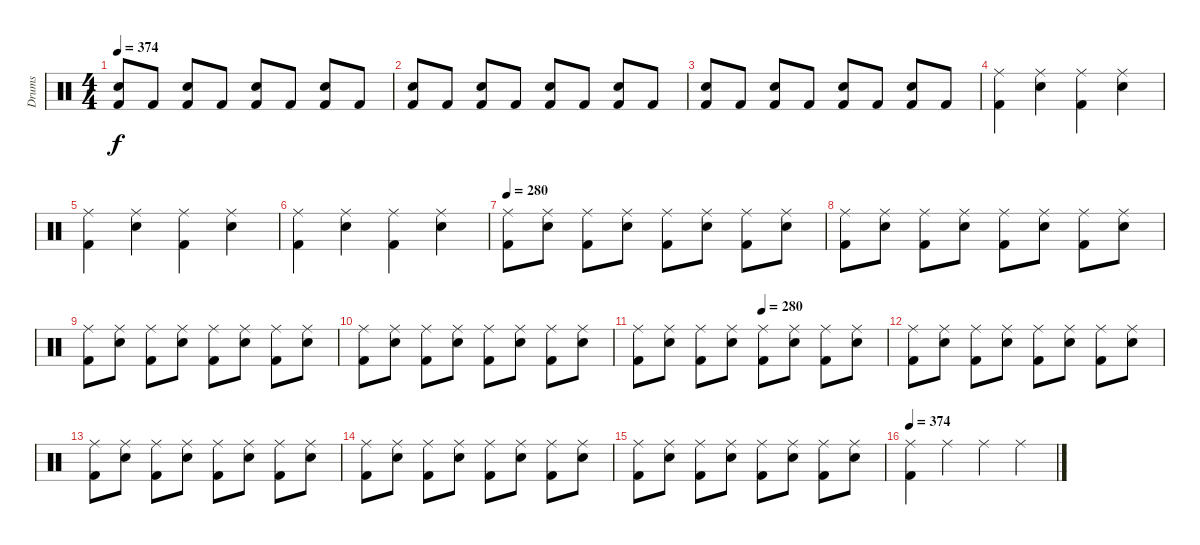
\track ("Drums" "Drums") {instrument percussion}
\staff {score}
\articulation defaults
\ts (4 4)
\tempo 374
\clef neutral
\ks c
("Snare (hit) 2" "Kick (hit) 2").8{dy f} "Kick (hit) 2".8 ("Snare (hit) 2" "Kick (hit) 2").8 "Kick (hit) 2".8 ("Snare (hit) 2" "Kick (hit) 2").8 "Kick (hit) 2".8 ("Snare (hit) 2" "Kick (hit) 2").8 "Kick (hit) 2".8 |
("Snare (hit) 2" "Kick (hit) 2").8 "Kick (hit) 2".8 ("Snare (hit) 2" "Kick (hit) 2").8 "Kick (hit) 2".8 ("Snare (hit) 2" "Kick (hit) 2").8 "Kick (hit) 2".8 ("Snare (hit) 2" "Kick (hit) 2").8 "Kick (hit) 2".8 |
("Snare (hit) 2" "Kick (hit) 2").8 "Kick (hit) 2".8 ("Snare (hit) 2" "Kick (hit) 2").8 "Kick (hit) 2".8 ("Snare (hit) 2" "Kick (hit) 2").8 "Kick (hit) 2".8 ("Snare (hit) 2" "Kick (hit) 2").8 "Kick (hit) 2".8 |
("Ride (middle)" "Kick (hit) 2").4 ("Ride (middle)" "Snare (hit) 2").4 ("Ride (middle)" "Kick (hit) 2").4 ("Ride (middle)" "Snare (hit) 2").4 |
("Ride (middle)" "Kick (hit) 2").4 ("Ride (middle)" "Snare (hit) 2").4 ("Ride (middle)" "Kick (hit) 2").4 ("Ride (middle)" "Snare (hit) 2").4 |
("Ride (middle)" "Kick (hit) 2").4 ("Ride (middle)" "Snare (hit) 2").4 ("Ride (middle)" "Kick (hit) 2").4 ("Ride (middle)" "Snare (hit) 2").4 |
\tempo 280
("Ride (middle)" "Kick (hit) 2").8 ("Ride (middle)" "Snare (hit) 2").8 ("Ride (middle)" "Kick (hit) 2").8 ("Ride (middle)" "Snare (hit) 2").8 ("Ride (middle)" "Kick (hit) 2").8 ("Ride (middle)" "Snare (hit) 2").8 ("Ride (middle)" "Kick (hit) 2").8 ("Ride (middle)" "Snare (hit) 2").8 |
("Ride (middle)" "Kick (hit) 2").8 ("Ride (middle)" "Snare (hit) 2").8 ("Ride (middle)" "Kick (hit) 2").8 ("Ride (middle)" "Snare (hit) 2").8 ("Ride (middle)" "Kick (hit) 2").8 ("Ride (middle)" "Snare (hit) 2").8 ("Ride (middle)" "Kick (hit) 2").8 ("Ride (middle)" "Snare (hit) 2").8 |
("Ride (middle)" "Kick (hit) 2").8 ("Ride (middle)" "Snare (hit) 2").8 ("Ride (middle)" "Kick (hit) 2").8 ("Ride (middle)" "Snare (hit) 2").8 ("Ride (middle)" "Kick (hit) 2").8 ("Ride (middle)" "Snare (hit) 2").8 ("Ride (middle)" "Kick (hit) 2").8 ("Ride (middle)" "Snare (hit) 2").8 |
("Ride (middle)" "Kick (hit) 2").8 ("Ride (middle)" "Snare (hit) 2").8 ("Ride (middle)" "Kick (hit) 2").8 ("Ride (middle)" "Snare (hit) 2").8 ("Ride (middle)" "Kick (hit) 2").8 ("Ride (middle)" "Snare (hit) 2").8 ("Ride (middle)" "Kick (hit) 2").8 ("Ride (middle)" "Snare (hit) 2").8 |
\tempo (280 0.5)
("Ride (middle)" "Kick (hit) 2").8 ("Ride (middle)" "Snare (hit) 2").8 ("Ride (middle)" "Kick (hit) 2").8 ("Ride (middle)" "Snare (hit) 2").8 ("Ride (middle)" "Kick (hit) 2").8 ("Ride (middle)" "Snare (hit) 2").8 ("Ride (middle)" "Kick (hit) 2").8 ("Ride (middle)" "Snare (hit) 2").8 |
("Ride (middle)" "Kick (hit) 2").8 ("Ride (middle)" "Snare (hit) 2").8 ("Ride (middle)" "Kick (hit) 2").8 ("Ride (middle)" "Snare (hit) 2").8 ("Ride (middle)" "Kick (hit) 2").8 ("Ride (middle)" "Snare (hit) 2").8 ("Ride (middle)" "Kick (hit) 2").8 ("Ride (middle)" "Snare (hit) 2").8 |
("Ride (middle)" "Kick (hit) 2").8 ("Ride (middle)" "Snare (hit) 2").8 ("Ride (middle)" "Kick (hit) 2").8 ("Ride (middle)" "Snare (hit) 2").8 ("Ride (middle)" "Kick (hit) 2").8 ("Ride (middle)" "Snare (hit) 2").8 ("Ride (middle)" "Kick (hit) 2").8 ("Ride (middle)" "Snare (hit) 2").8 |
("Ride (middle)" "Kick (hit) 2").8 ("Ride (middle)" "Snare (hit) 2").8 ("Ride (middle)" "Kick (hit) 2").8 ("Ride (middle)" "Snare (hit) 2").8 ("Ride (middle)" "Kick (hit) 2").8 ("Ride (middle)" "Snare (hit) 2").8 ("Ride (middle)" "Kick (hit) 2").8 ("Ride (middle)" "Snare (hit) 2").8 |
("Ride (middle)" "Kick (hit) 2").8 ("Ride (middle)" "Snare (hit) 2").8 ("Ride (middle)" "Kick (hit) 2").8 ("Ride (middle)" "Snare (hit) 2").8 ("Ride (middle)" "Kick (hit) 2").8 ("Ride (middle)" "Snare (hit) 2").8 ("Ride (middle)" "Kick (hit) 2").8 ("Ride (middle)" "Snare (hit) 2").8 |
\tempo 374
("Ride (middle)" "Kick (hit) 2").4 "Ride (middle)".4 "Ride (middle)".4 "Ride (middle)".4
